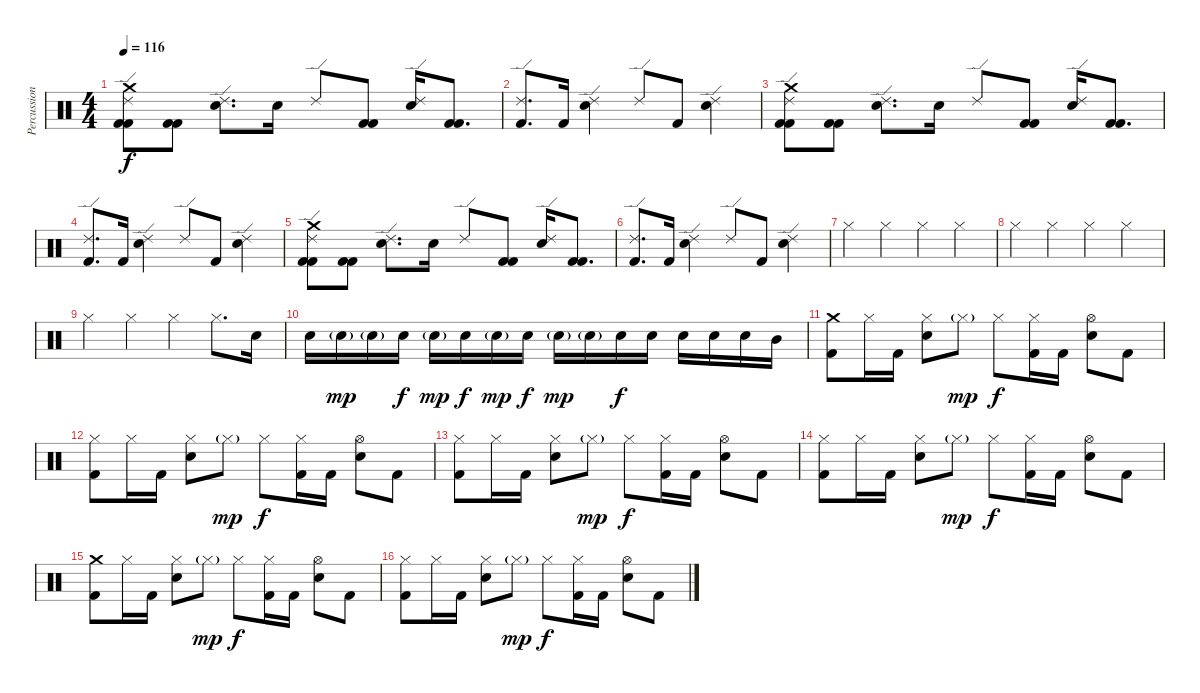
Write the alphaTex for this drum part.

\track ("Percussion" "Percussion") {instrument percussion}
\staff {score}
\articulation defaults
\ts (4 4)
\tempo 116
\clef neutral
\ks c
("Crash medium (hit)" "Ride (edge) 2" "Kick (hit) 2" "Kick (hit) 2").8{dy f} ("Kick (hit) 2" "Kick (hit) 2").8 ("Ride (edge) 2" "Snare (hit) 2").8{d} "Snare (hit) 2".16 "Ride (edge) 2".8 ("Kick (hit) 2" "Kick (hit) 2").8 ("Ride (edge) 2" "Snare (hit) 2").16 ("Kick (hit) 2" "Kick (hit) 2").8{d} |
("Ride (edge) 2" "Kick (hit) 2").8{d} "Kick (hit) 2".16 ("Ride (edge) 2" "Snare (hit) 2").4 "Ride (edge) 2".8 "Kick (hit) 2".8 ("Ride (edge) 2" "Snare (hit) 2").4 |
("Crash medium (hit)" "Ride (edge) 2" "Kick (hit) 2" "Kick (hit) 2").8 ("Kick (hit) 2" "Kick (hit) 2").8 ("Ride (edge) 2" "Snare (hit) 2").8{d} "Snare (hit) 2".16 "Ride (edge) 2".8 ("Kick (hit) 2" "Kick (hit) 2").8 ("Ride (edge) 2" "Snare (hit) 2").16 ("Kick (hit) 2" "Kick (hit) 2").8{d} |
("Ride (edge) 2" "Kick (hit) 2").8{d} "Kick (hit) 2".16 ("Ride (edge) 2" "Snare (hit) 2").4 "Ride (edge) 2".8 "Kick (hit) 2".8 ("Ride (edge) 2" "Snare (hit) 2").4 |
("Crash medium (hit)" "Ride (edge) 2" "Kick (hit) 2" "Kick (hit) 2").8 ("Kick (hit) 2" "Kick (hit) 2").8 ("Ride (edge) 2" "Snare (hit) 2").8{d} "Snare (hit) 2".16 "Ride (edge) 2".8 ("Kick (hit) 2" "Kick (hit) 2").8 ("Ride (edge) 2" "Snare (hit) 2").16 ("Kick (hit) 2" "Kick (hit) 2").8{d} |
("Ride (edge) 2" "Kick (hit) 2").8{d} "Kick (hit) 2".16 ("Ride (edge) 2" "Snare (hit) 2").4 "Ride (edge) 2".8 "Kick (hit) 2".8 ("Ride (edge) 2" "Snare (hit) 2").4 |
"Hi-Hat (closed)".4 "Hi-Hat (closed)".4 "Hi-Hat (closed)".4 "Hi-Hat (closed)".4 |
"Hi-Hat (closed)".4 "Hi-Hat (closed)".4 "Hi-Hat (closed)".4 "Hi-Hat (closed)".4 |
"Hi-Hat (closed)".4 "Hi-Hat (closed)".4 "Hi-Hat (closed)".4 "Hi-Hat (closed)".8{d} "Snare (hit) 2".16 |
"Snare (hit) 2".16 "Snare (hit) 2"{g}.16{dy mp} "Snare (hit) 2"{g}.16 "Snare (hit) 2".16{dy f} "Snare (hit) 2"{g}.16{dy mp} "Snare (hit) 2".16{dy f} "Snare (hit) 2"{g}.16{dy mp} "Snare (hit) 2".16{dy f} "Snare (hit) 2"{g}.16{dy mp} "Snare (hit) 2"{g}.16 "Snare (hit) 2".16{dy f} "Snare (hit) 2".16 "Snare (hit) 2".16 "Snare (hit) 2".16 "Snare (hit) 2".16 "Mid Tom (hit)".16 |
("Crash medium (hit)" "Kick (hit) 2").8 "Hi-Hat (closed)".16 "Kick (hit) 2".16 ("Hi-Hat (closed)" "Snare (hit) 2").8 "Hi-Hat (closed)"{g}.8{dy mp} "Hi-Hat (closed)".8{dy f} ("Hi-Hat (closed)" "Kick (hit) 2").16 "Kick (hit) 2".16 ("Hi-Hat (open)" "Snare (hit) 2").8 "Kick (hit) 2".8 |
("Hi-Hat (closed)" "Kick (hit) 2").8 "Hi-Hat (closed)".16 "Kick (hit) 2".16 ("Hi-Hat (closed)" "Snare (hit) 2").8 "Hi-Hat (closed)"{g}.8{dy mp} "Hi-Hat (closed)".8{dy f} ("Hi-Hat (closed)" "Kick (hit) 2").16 "Kick (hit) 2".16 ("Hi-Hat (open)" "Snare (hit) 2").8 "Kick (hit) 2".8 |
("Hi-Hat (closed)" "Kick (hit) 2").8 "Hi-Hat (closed)".16 "Kick (hit) 2".16 ("Hi-Hat (closed)" "Snare (hit) 2").8 "Hi-Hat (closed)"{g}.8{dy mp} "Hi-Hat (closed)".8{dy f} ("Hi-Hat (closed)" "Kick (hit) 2").16 "Kick (hit) 2".16 ("Hi-Hat (open)" "Snare (hit) 2").8 "Kick (hit) 2".8 |
("Hi-Hat (closed)" "Kick (hit) 2").8 "Hi-Hat (closed)".16 "Kick (hit) 2".16 ("Hi-Hat (closed)" "Snare (hit) 2").8 "Hi-Hat (closed)"{g}.8{dy mp} "Hi-Hat (closed)".8{dy f} ("Hi-Hat (closed)" "Kick (hit) 2").16 "Kick (hit) 2".16 ("Hi-Hat (open)" "Snare (hit) 2").8 "Kick (hit) 2".8 |
("Crash medium (hit)" "Kick (hit) 2").8 "Hi-Hat (closed)".16 "Kick (hit) 2".16 ("Hi-Hat (closed)" "Snare (hit) 2").8 "Hi-Hat (closed)"{g}.8{dy mp} "Hi-Hat (closed)".8{dy f} ("Hi-Hat (closed)" "Kick (hit) 2").16 "Kick (hit) 2".16 ("Hi-Hat (open)" "Snare (hit) 2").8 "Kick (hit) 2".8 |
("Hi-Hat (closed)" "Kick (hit) 2").8 "Hi-Hat (closed)".16 "Kick (hit) 2".16 ("Hi-Hat (closed)" "Snare (hit) 2").8 "Hi-Hat (closed)"{g}.8{dy mp} "Hi-Hat (closed)".8{dy f} ("Hi-Hat (closed)" "Kick (hit) 2").16 "Kick (hit) 2".16 ("Hi-Hat (open)" "Snare (hit) 2").8 "Kick (hit) 2".8
